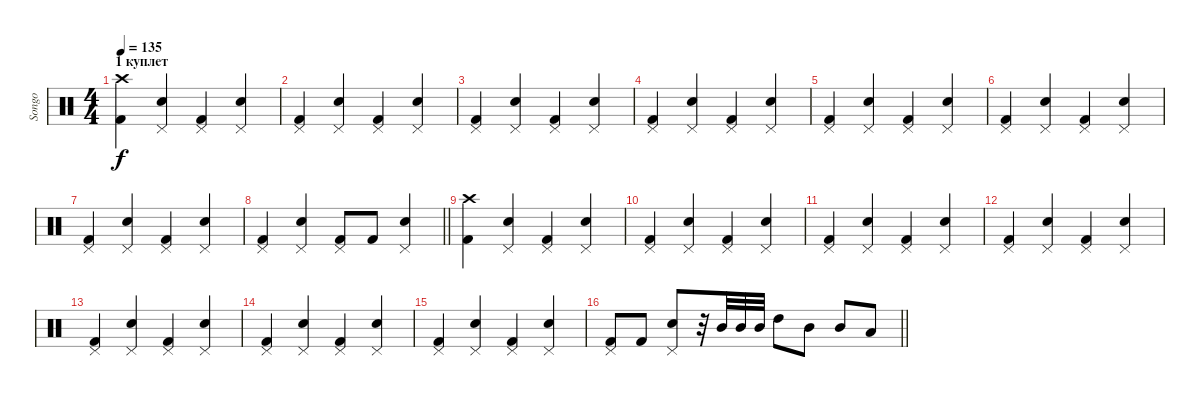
\track ("Songo" "Songo") {instrument percussion}
\staff {score}
\articulation defaults
\ts (4 4)
\section ("" "1 куплет")
\tempo 135
\clef neutral
\ks c
("Crash high (hit)" "Kick (hit) 2").4{dy f} ("Pedal Hi-Hat (hit)" "Snare (hit) 2").4 ("Pedal Hi-Hat (hit)" "Kick (hit) 2").4 ("Pedal Hi-Hat (hit)" "Snare (hit) 2").4 |
("Pedal Hi-Hat (hit)" "Kick (hit) 2").4 ("Pedal Hi-Hat (hit)" "Snare (hit) 2").4 ("Pedal Hi-Hat (hit)" "Kick (hit) 2").4 ("Pedal Hi-Hat (hit)" "Snare (hit) 2").4 |
("Pedal Hi-Hat (hit)" "Kick (hit) 2").4 ("Pedal Hi-Hat (hit)" "Snare (hit) 2").4 ("Pedal Hi-Hat (hit)" "Kick (hit) 2").4 ("Pedal Hi-Hat (hit)" "Snare (hit) 2").4 |
("Pedal Hi-Hat (hit)" "Kick (hit) 2").4 ("Pedal Hi-Hat (hit)" "Snare (hit) 2").4 ("Pedal Hi-Hat (hit)" "Kick (hit) 2").4 ("Pedal Hi-Hat (hit)" "Snare (hit) 2").4 |
("Pedal Hi-Hat (hit)" "Kick (hit) 2").4 ("Pedal Hi-Hat (hit)" "Snare (hit) 2").4 ("Pedal Hi-Hat (hit)" "Kick (hit) 2").4 ("Pedal Hi-Hat (hit)" "Snare (hit) 2").4 |
("Pedal Hi-Hat (hit)" "Kick (hit) 2").4 ("Pedal Hi-Hat (hit)" "Snare (hit) 2").4 ("Pedal Hi-Hat (hit)" "Kick (hit) 2").4 ("Pedal Hi-Hat (hit)" "Snare (hit) 2").4 |
("Pedal Hi-Hat (hit)" "Kick (hit) 2").4 ("Pedal Hi-Hat (hit)" "Snare (hit) 2").4 ("Pedal Hi-Hat (hit)" "Kick (hit) 2").4 ("Pedal Hi-Hat (hit)" "Snare (hit) 2").4 |
\barLineRight lightlight
("Pedal Hi-Hat (hit)" "Kick (hit) 2").4 ("Pedal Hi-Hat (hit)" "Snare (hit) 2").4 ("Pedal Hi-Hat (hit)" "Kick (hit) 2").8 "Kick (hit) 2".8 ("Pedal Hi-Hat (hit)" "Snare (hit) 2").4 |
("Crash high (hit)" "Kick (hit) 2").4 ("Pedal Hi-Hat (hit)" "Snare (hit) 2").4 ("Pedal Hi-Hat (hit)" "Kick (hit) 2").4 ("Pedal Hi-Hat (hit)" "Snare (hit) 2").4 |
("Pedal Hi-Hat (hit)" "Kick (hit) 2").4 ("Pedal Hi-Hat (hit)" "Snare (hit) 2").4 ("Pedal Hi-Hat (hit)" "Kick (hit) 2").4 ("Pedal Hi-Hat (hit)" "Snare (hit) 2").4 |
("Pedal Hi-Hat (hit)" "Kick (hit) 2").4 ("Pedal Hi-Hat (hit)" "Snare (hit) 2").4 ("Pedal Hi-Hat (hit)" "Kick (hit) 2").4 ("Pedal Hi-Hat (hit)" "Snare (hit) 2").4 |
("Pedal Hi-Hat (hit)" "Kick (hit) 2").4 ("Pedal Hi-Hat (hit)" "Snare (hit) 2").4 ("Pedal Hi-Hat (hit)" "Kick (hit) 2").4 ("Pedal Hi-Hat (hit)" "Snare (hit) 2").4 |
("Pedal Hi-Hat (hit)" "Kick (hit) 2").4 ("Pedal Hi-Hat (hit)" "Snare (hit) 2").4 ("Pedal Hi-Hat (hit)" "Kick (hit) 2").4 ("Pedal Hi-Hat (hit)" "Snare (hit) 2").4 |
("Pedal Hi-Hat (hit)" "Kick (hit) 2").4 ("Pedal Hi-Hat (hit)" "Snare (hit) 2").4 ("Pedal Hi-Hat (hit)" "Kick (hit) 2").4 ("Pedal Hi-Hat (hit)" "Snare (hit) 2").4 |
("Pedal Hi-Hat (hit)" "Kick (hit) 2").4 ("Pedal Hi-Hat (hit)" "Snare (hit) 2").4 ("Pedal Hi-Hat (hit)" "Kick (hit) 2").4 ("Pedal Hi-Hat (hit)" "Snare (hit) 2").4 |
\barLineRight lightlight
("Pedal Hi-Hat (hit)" "Kick (hit) 2").8 "Kick (hit) 2".8 ("Pedal Hi-Hat (hit)" "Snare (hit) 2").8 r.32 "Mid Tom (hit)".32 "Mid Tom (hit)".32 "Mid Tom (hit)".32 "High Tom (hit)".8 "Mid Tom (hit)".8 "Mid Tom (hit)".8 "Low Tom (hit)".8
